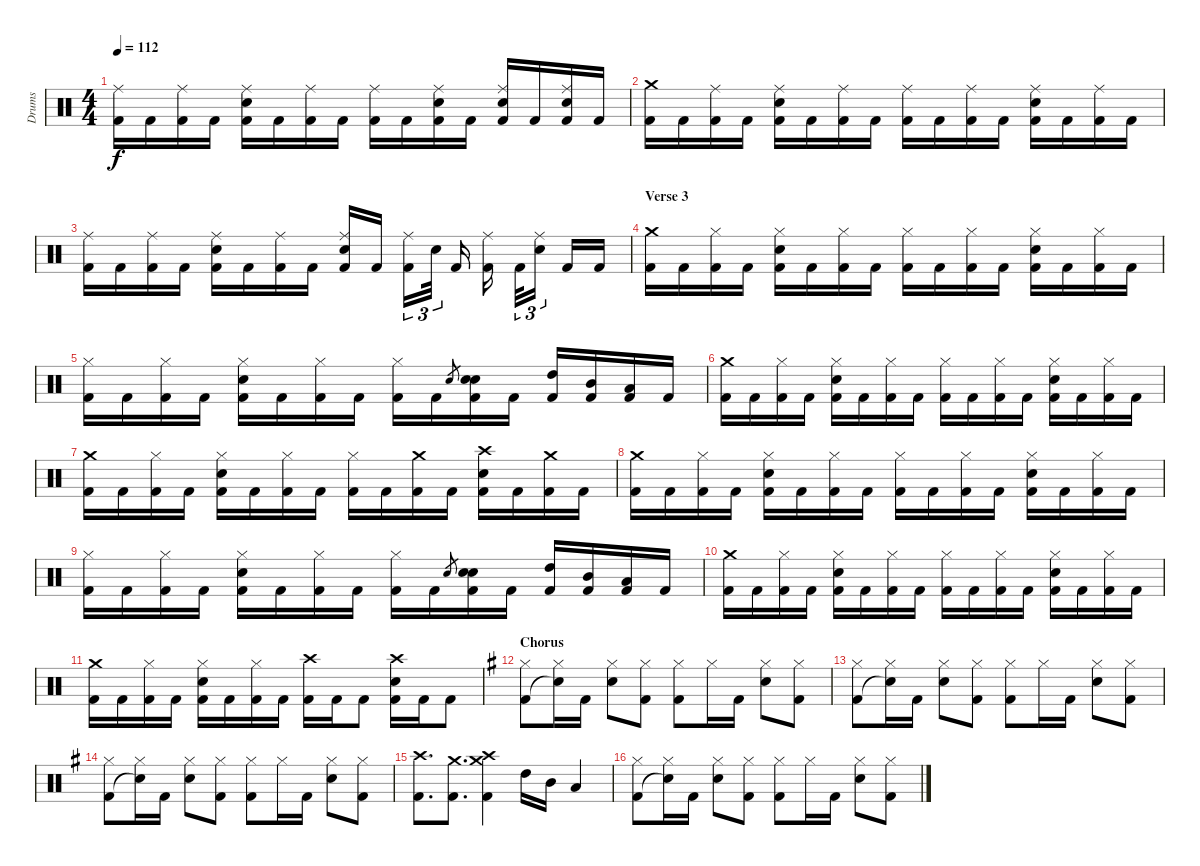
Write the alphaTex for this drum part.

\track ("Drums" "Drums") {instrument percussion}
\staff {score}
\articulation defaults
\ts (4 4)
\tempo 112
\clef neutral
\ks c
("Kick (hit) 2" "Ride (middle)").16{dy f} "Kick (hit) 2".16 ("Kick (hit) 2" "Ride (middle)").16 "Kick (hit) 2".16 ("Kick (hit) 2" "Snare (hit) 2" "Ride (middle)").16 "Kick (hit) 2".16 ("Kick (hit) 2" "Ride (middle)").16 "Kick (hit) 2".16 ("Kick (hit) 2" "Ride (middle)").16 "Kick (hit) 2".16 ("Kick (hit) 2" "Snare (hit) 2" "Ride (middle)").16 "Kick (hit) 2".16 ("Kick (hit) 2" "Snare (hit) 2" "Ride (middle)").16 "Kick (hit) 2".16 ("Kick (hit) 2" "Snare (hit) 2" "Ride (middle)").16 "Kick (hit) 2".16 |
("Kick (hit) 2" "Crash medium (hit)").16 "Kick (hit) 2".16 ("Kick (hit) 2" "Ride (middle)").16 "Kick (hit) 2".16 ("Kick (hit) 2" "Snare (hit) 2" "Ride (middle)").16 "Kick (hit) 2".16 ("Kick (hit) 2" "Ride (middle)").16 "Kick (hit) 2".16 ("Kick (hit) 2" "Ride (middle)").16 "Kick (hit) 2".16 ("Kick (hit) 2" "Ride (middle)").16 "Kick (hit) 2".16 ("Kick (hit) 2" "Snare (hit) 2" "Ride (middle)").16 "Kick (hit) 2".16 ("Kick (hit) 2" "Ride (middle)").16 "Kick (hit) 2".16 |
("Kick (hit) 2" "Ride (middle)").16 "Kick (hit) 2".16 ("Kick (hit) 2" "Ride (middle)").16 "Kick (hit) 2".16 ("Kick (hit) 2" "Snare (hit) 2" "Ride (middle)").16 "Kick (hit) 2".16 ("Kick (hit) 2" "Ride (middle)").16 "Kick (hit) 2".16 ("Kick (hit) 2" "Ride (middle)" "Snare (hit) 2").16 "Kick (hit) 2".16{beam splitsecondary} ("Kick (hit) 2" "Ride (middle)").16{tu (3 2)} "Snare (hit) 2".32{tu (3 2) beam splitsecondary} "Kick (hit) 2".16 ("Kick (hit) 2" "Ride (middle)").16{beam splitsecondary} "Kick (hit) 2".32{tu (3 2)} ("Snare (hit) 2" "Ride (middle)").16{tu (3 2) beam splitsecondary} "Kick (hit) 2".16 "Kick (hit) 2".16 |
\section ("" "Verse 3")
("Kick (hit) 2" "Crash medium (hit)").16 "Kick (hit) 2".16 ("Kick (hit) 2" "Hi-Hat (closed)").16 "Kick (hit) 2".16 ("Kick (hit) 2" "Hi-Hat (closed)" "Snare (hit) 2").16 "Kick (hit) 2".16 ("Kick (hit) 2" "Hi-Hat (closed)").16 "Kick (hit) 2".16 ("Kick (hit) 2" "Hi-Hat (closed)").16 "Kick (hit) 2".16 ("Kick (hit) 2" "Hi-Hat (closed)").16 "Kick (hit) 2".16 ("Kick (hit) 2" "Hi-Hat (closed)" "Snare (hit) 2").16 "Kick (hit) 2".16 ("Kick (hit) 2" "Hi-Hat (closed)").16 "Kick (hit) 2".16 |
("Kick (hit) 2" "Hi-Hat (closed)").16 "Kick (hit) 2".16 ("Kick (hit) 2" "Hi-Hat (closed)").16 "Kick (hit) 2".16 ("Kick (hit) 2" "Hi-Hat (closed)" "Snare (hit) 2").16 "Kick (hit) 2".16 ("Kick (hit) 2" "Hi-Hat (closed)").16 "Kick (hit) 2".16 ("Kick (hit) 2" "Hi-Hat (closed)").16 "Kick (hit) 2".16 "Snare (hit) 2".8{gr} ("Kick (hit) 2" "Snare (hit) 2" "Snare (hit) 2").16 "Kick (hit) 2".16 ("Kick (hit) 2" "High Tom (hit)").16 ("Kick (hit) 2" "Mid Tom (hit)").16 ("Kick (hit) 2" "Low Tom (hit)").16 "Kick (hit) 2".16 |
("Kick (hit) 2" "Crash medium (hit)").16 "Kick (hit) 2".16 ("Kick (hit) 2" "Hi-Hat (closed)").16 "Kick (hit) 2".16 ("Kick (hit) 2" "Hi-Hat (closed)" "Snare (hit) 2").16 "Kick (hit) 2".16 ("Kick (hit) 2" "Hi-Hat (closed)").16 "Kick (hit) 2".16 ("Kick (hit) 2" "Hi-Hat (closed)").16 "Kick (hit) 2".16 ("Kick (hit) 2" "Hi-Hat (closed)").16 "Kick (hit) 2".16 ("Kick (hit) 2" "Hi-Hat (closed)" "Snare (hit) 2").16 "Kick (hit) 2".16 ("Kick (hit) 2" "Hi-Hat (closed)").16 "Kick (hit) 2".16 |
("Kick (hit) 2" "Crash medium (hit)").16 "Kick (hit) 2".16 ("Kick (hit) 2" "Hi-Hat (closed)").16 "Kick (hit) 2".16 ("Kick (hit) 2" "Hi-Hat (closed)" "Snare (hit) 2").16 "Kick (hit) 2".16 ("Kick (hit) 2" "Hi-Hat (closed)").16 "Kick (hit) 2".16 ("Kick (hit) 2" "Hi-Hat (closed)").16 "Kick (hit) 2".16 ("Kick (hit) 2" "Crash medium (hit)").16 "Kick (hit) 2".16 ("Kick (hit) 2" "Crash high (hit)" "Snare (hit) 2").16 "Kick (hit) 2".16 ("Kick (hit) 2" "Crash medium (hit)").16 "Kick (hit) 2".16 |
("Kick (hit) 2" "Crash medium (hit)").16 "Kick (hit) 2".16 ("Kick (hit) 2" "Hi-Hat (closed)").16 "Kick (hit) 2".16 ("Kick (hit) 2" "Hi-Hat (closed)" "Snare (hit) 2").16 "Kick (hit) 2".16 ("Kick (hit) 2" "Hi-Hat (closed)").16 "Kick (hit) 2".16 ("Kick (hit) 2" "Hi-Hat (closed)").16 "Kick (hit) 2".16 ("Kick (hit) 2" "Hi-Hat (closed)").16 "Kick (hit) 2".16 ("Kick (hit) 2" "Hi-Hat (closed)" "Snare (hit) 2").16 "Kick (hit) 2".16 ("Kick (hit) 2" "Hi-Hat (closed)").16 "Kick (hit) 2".16 |
("Kick (hit) 2" "Hi-Hat (closed)").16 "Kick (hit) 2".16 ("Kick (hit) 2" "Hi-Hat (closed)").16 "Kick (hit) 2".16 ("Kick (hit) 2" "Hi-Hat (closed)" "Snare (hit) 2").16 "Kick (hit) 2".16 ("Kick (hit) 2" "Hi-Hat (closed)").16 "Kick (hit) 2".16 ("Kick (hit) 2" "Hi-Hat (closed)").16 "Kick (hit) 2".16 "Snare (hit) 2".8{gr} ("Kick (hit) 2" "Snare (hit) 2" "Snare (hit) 2").16 "Kick (hit) 2".16 ("Kick (hit) 2" "High Tom (hit)").16 ("Kick (hit) 2" "Mid Tom (hit)").16 ("Kick (hit) 2" "Low Tom (hit)").16 "Kick (hit) 2".16 |
("Kick (hit) 2" "Crash medium (hit)").16 "Kick (hit) 2".16 ("Kick (hit) 2" "Hi-Hat (closed)").16 "Kick (hit) 2".16 ("Kick (hit) 2" "Hi-Hat (closed)" "Snare (hit) 2").16 "Kick (hit) 2".16 ("Kick (hit) 2" "Hi-Hat (closed)").16 "Kick (hit) 2".16 ("Kick (hit) 2" "Hi-Hat (closed)").16 "Kick (hit) 2".16 ("Kick (hit) 2" "Hi-Hat (closed)").16 "Kick (hit) 2".16 ("Kick (hit) 2" "Hi-Hat (closed)" "Snare (hit) 2").16 "Kick (hit) 2".16 ("Kick (hit) 2" "Hi-Hat (closed)").16 "Kick (hit) 2".16 |
("Kick (hit) 2" "Crash medium (hit)").16 "Kick (hit) 2".16 ("Kick (hit) 2" "Hi-Hat (closed)").16 "Kick (hit) 2".16 ("Kick (hit) 2" "Hi-Hat (closed)" "Snare (hit) 2").16 "Kick (hit) 2".16 ("Kick (hit) 2" "Hi-Hat (closed)").16 "Kick (hit) 2".16 ("Kick (hit) 2" "Crash high (hit)").16 "Kick (hit) 2".16 "Kick (hit) 2".8 ("Kick (hit) 2" "Crash high (hit)" "Snare (hit) 2").16 "Kick (hit) 2".16 "Kick (hit) 2".8 |
\section ("" "Chorus")
\ks g
("Kick (hit) 2" "Hi-Hat (closed)").8 ("Snare (hit)"{t} "Hi-Hat (closed)").16 "Kick (hit) 2".16 ("Snare (hit) 2" "Hi-Hat (closed)").8 ("Kick (hit) 2" "Hi-Hat (closed)").8 ("Kick (hit) 2" "Hi-Hat (closed)").8 "Hi-Hat (closed)".16 "Kick (hit) 2".16 ("Snare (hit) 2" "Hi-Hat (closed)").8 ("Kick (hit) 2" "Hi-Hat (closed)").8 |
("Kick (hit) 2" "Hi-Hat (closed)").8 ("Snare (hit)"{t} "Hi-Hat (closed)").16 "Kick (hit) 2".16 ("Snare (hit) 2" "Hi-Hat (closed)").8 ("Kick (hit) 2" "Hi-Hat (closed)").8 ("Kick (hit) 2" "Hi-Hat (closed)").8 "Hi-Hat (closed)".16 "Kick (hit) 2".16 ("Snare (hit) 2" "Hi-Hat (closed)").8 ("Kick (hit) 2" "Hi-Hat (closed)").8 |
("Kick (hit) 2" "Hi-Hat (closed)").8 ("Snare (hit)"{t} "Hi-Hat (closed)").16 "Kick (hit) 2".16 ("Snare (hit) 2" "Hi-Hat (closed)").8 ("Kick (hit) 2" "Hi-Hat (closed)").8 ("Kick (hit) 2" "Hi-Hat (closed)").8 "Hi-Hat (closed)".16 "Kick (hit) 2".16 ("Snare (hit) 2" "Hi-Hat (closed)").8 ("Kick (hit) 2" "Hi-Hat (closed)").8 |
("Kick (hit) 2" "Crash high (hit)").8{d} ("Kick (hit) 2" "Crash medium (hit)").8{d} ("Kick (hit) 2" "Crash high (hit)" "Crash medium (hit)").4 "High Tom (hit)".16 "Mid Tom (hit)".16 "Low Tom (hit)".4 |
("Kick (hit) 2" "Hi-Hat (closed)").8 ("Snare (hit)"{t} "Hi-Hat (closed)").16 "Kick (hit) 2".16 ("Snare (hit) 2" "Hi-Hat (closed)").8 ("Kick (hit) 2" "Hi-Hat (closed)").8 ("Kick (hit) 2" "Hi-Hat (closed)").8 "Hi-Hat (closed)".16 "Kick (hit) 2".16 ("Snare (hit) 2" "Hi-Hat (closed)").8 ("Kick (hit) 2" "Hi-Hat (closed)").8
